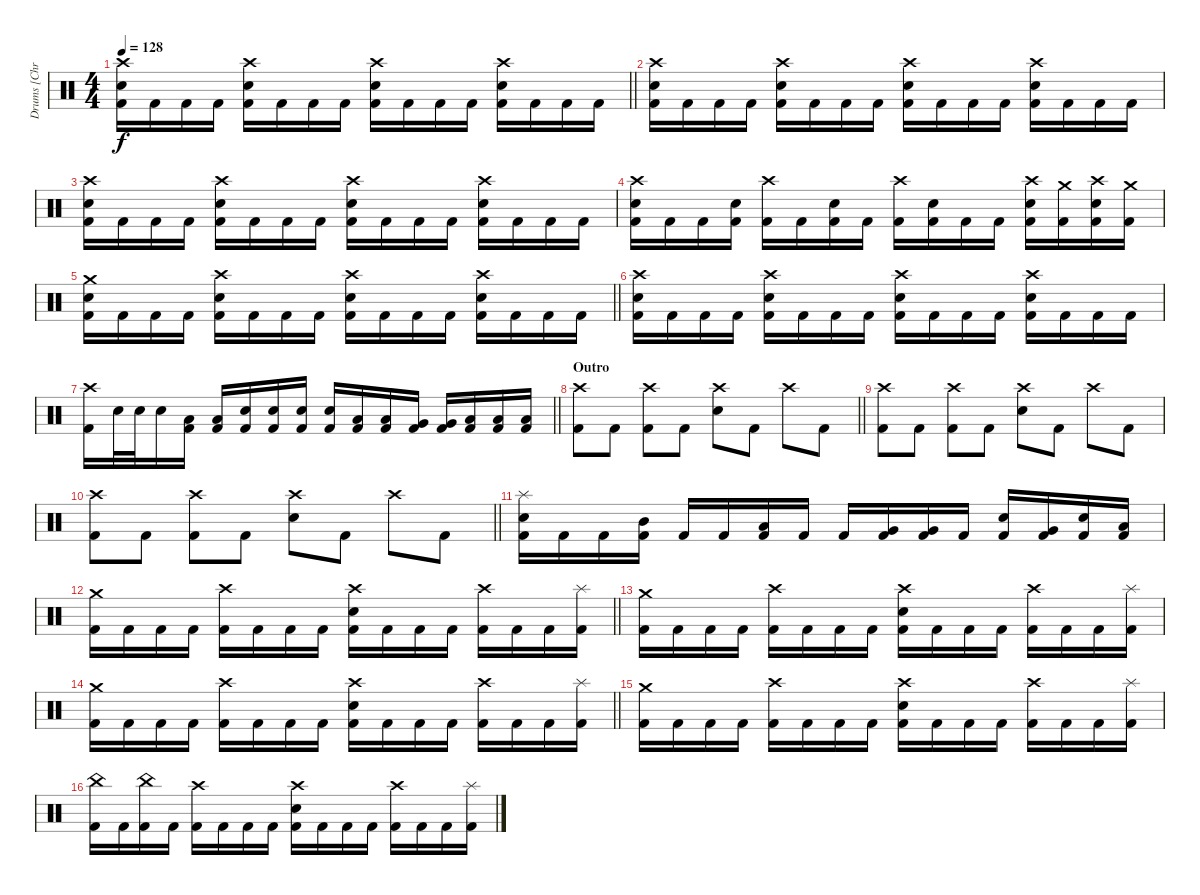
\track ("Drums [Chris Adler]" "Drums [Chr") {instrument percussion}
\staff {score}
\articulation defaults
\ts (4 4)
\tempo 128
\clef neutral
\barLineRight lightlight
\ks c
("Crash high (hit)" "Snare (hit) 2" "Kick (hit) 2").16{dy f} "Kick (hit) 2".16 "Kick (hit) 2".16 "Kick (hit) 2".16 ("Crash high (hit)" "Snare (hit) 2" "Kick (hit) 2").16 "Kick (hit) 2".16 "Kick (hit) 2".16 "Kick (hit) 2".16 ("Crash high (hit)" "Snare (hit) 2" "Kick (hit) 2").16 "Kick (hit) 2".16 "Kick (hit) 2".16 "Kick (hit) 2".16 ("Crash high (hit)" "Snare (hit) 2" "Kick (hit) 2").16 "Kick (hit) 2".16 "Kick (hit) 2".16 "Kick (hit) 2".16 |
("Crash high (hit)" "Snare (hit) 2" "Kick (hit) 2").16 "Kick (hit) 2".16 "Kick (hit) 2".16 "Kick (hit) 2".16 ("Crash high (hit)" "Snare (hit) 2" "Kick (hit) 2").16 "Kick (hit) 2".16 "Kick (hit) 2".16 "Kick (hit) 2".16 ("Crash high (hit)" "Snare (hit) 2" "Kick (hit) 2").16 "Kick (hit) 2".16 "Kick (hit) 2".16 "Kick (hit) 2".16 ("Crash high (hit)" "Snare (hit) 2" "Kick (hit) 2").16 "Kick (hit) 2".16 "Kick (hit) 2".16 "Kick (hit) 2".16 |
("Crash high (hit)" "Snare (hit) 2" "Kick (hit) 2").16 "Kick (hit) 2".16 "Kick (hit) 2".16 "Kick (hit) 2".16 ("Crash high (hit)" "Snare (hit) 2" "Kick (hit) 2").16 "Kick (hit) 2".16 "Kick (hit) 2".16 "Kick (hit) 2".16 ("Crash high (hit)" "Snare (hit) 2" "Kick (hit) 2").16 "Kick (hit) 2".16 "Kick (hit) 2".16 "Kick (hit) 2".16 ("Crash high (hit)" "Snare (hit) 2" "Kick (hit) 2").16 "Kick (hit) 2".16 "Kick (hit) 2".16 "Kick (hit) 2".16 |
("Crash high (hit)" "Snare (hit) 2" "Kick (hit) 2").16 "Kick (hit) 2".16 "Kick (hit) 2".16 ("Snare (hit) 2" "Kick (hit) 2").16 ("Crash high (hit)" "Kick (hit) 2").16 "Kick (hit) 2".16 ("Snare (hit) 2" "Kick (hit) 2").16 "Kick (hit) 2".16 ("Crash high (hit)" "Kick (hit) 2").16 ("Snare (hit) 2" "Kick (hit) 2").16 "Kick (hit) 2".16 "Kick (hit) 2".16 ("Crash high (hit)" "Snare (hit) 2" "Kick (hit) 2").16 ("Crash medium (hit)" "Kick (hit) 2").16 ("Crash high (hit)" "Snare (hit) 2" "Kick (hit) 2").16 ("Crash medium (hit)" "Kick (hit) 2").16 |
\barLineRight lightlight
("Crash medium (hit)" "Snare (hit) 2" "Kick (hit) 2").16 "Kick (hit) 2".16 "Kick (hit) 2".16 "Kick (hit) 2".16 ("Crash high (hit)" "Snare (hit) 2" "Kick (hit) 2").16 "Kick (hit) 2".16 "Kick (hit) 2".16 "Kick (hit) 2".16 ("Crash high (hit)" "Snare (hit) 2" "Kick (hit) 2").16 "Kick (hit) 2".16 "Kick (hit) 2".16 "Kick (hit) 2".16 ("Crash high (hit)" "Snare (hit) 2" "Kick (hit) 2").16 "Kick (hit) 2".16 "Kick (hit) 2".16 "Kick (hit) 2".16 |
("Crash high (hit)" "Snare (hit) 2" "Kick (hit) 2").16 "Kick (hit) 2".16 "Kick (hit) 2".16 "Kick (hit) 2".16 ("Crash high (hit)" "Snare (hit) 2" "Kick (hit) 2").16 "Kick (hit) 2".16 "Kick (hit) 2".16 "Kick (hit) 2".16 ("Crash high (hit)" "Snare (hit) 2" "Kick (hit) 2").16 "Kick (hit) 2".16 "Kick (hit) 2".16 "Kick (hit) 2".16 ("Crash high (hit)" "Snare (hit) 2" "Kick (hit) 2").16 "Kick (hit) 2".16 "Kick (hit) 2".16 "Kick (hit) 2".16 |
\barLineRight lightlight
("Crash high (hit)" "Kick (hit) 2").16 "Snare (hit) 2".32 "Snare (hit) 2".32 "Snare (hit) 2".16 ("Low Tom (hit)" "Kick (hit) 2").16 ("Low Tom (hit)" "Kick (hit) 2").16 ("Snare (hit) 2" "Kick (hit) 2").16 ("Snare (hit) 2" "Kick (hit) 2").16 ("Snare (hit) 2" "Kick (hit) 2").16 ("Snare (hit) 2" "Kick (hit) 2").16 ("Low Tom (hit)" "Kick (hit) 2").16 ("Low Tom (hit)" "Kick (hit) 2").16 ("Very Low Tom (hit)" "Kick (hit) 2").16 ("Very Low Tom (hit)" "Kick (hit) 2").16 ("Low Floor Tom (hit)" "Kick (hit) 2").16 ("Low Floor Tom (hit)" "Kick (hit) 2").16 ("Low Floor Tom (hit)" "Kick (hit) 2").16 |
\section ("" "Outro")
\barLineRight lightlight
("Crash high (hit)" "Kick (hit) 2").8 "Kick (hit) 2".8 ("Crash high (hit)" "Kick (hit) 2").8 "Kick (hit) 2".8 ("Crash high (hit)" "Snare (hit) 2").8 "Kick (hit) 2".8 "Crash high (hit)".8 "Kick (hit) 2".8 |
("Crash high (hit)" "Kick (hit) 2").8 "Kick (hit) 2".8 ("Crash high (hit)" "Kick (hit) 2").8 "Kick (hit) 2".8 ("Crash high (hit)" "Snare (hit) 2").8 "Kick (hit) 2".8 "Crash high (hit)".8 "Kick (hit) 2".8 |
\barLineRight lightlight
("Crash high (hit)" "Kick (hit) 2").8 "Kick (hit) 2".8 ("Crash high (hit)" "Kick (hit) 2").8 "Kick (hit) 2".8 ("Crash high (hit)" "Snare (hit) 2").8 "Kick (hit) 2".8 "Crash high (hit)".8 "Kick (hit) 2".8 |
("Splash (hit)" "Snare (hit) 2" "Kick (hit) 2").16 "Kick (hit) 2".16 "Kick (hit) 2".16 ("Mid Tom (hit)" "Kick (hit) 2").16 "Kick (hit) 2".16 "Kick (hit) 2".16 ("Low Tom (hit)" "Kick (hit) 2").16 "Kick (hit) 2".16 "Kick (hit) 2".16 ("Very Low Tom (hit)" "Kick (hit) 2").16 ("Very Low Tom (hit)" "Kick (hit) 2").16 "Kick (hit) 2".16 ("Snare (hit) 2" "Kick (hit) 2").16 ("Very Low Tom (hit)" "Kick (hit) 2").16 ("Snare (hit) 2" "Kick (hit) 2").16 ("Low Floor Tom (hit)" "Kick (hit) 2").16 |
\barLineRight lightlight
("Crash medium (hit)" "Kick (hit) 2").16 "Kick (hit) 2".16 "Kick (hit) 2".16 "Kick (hit) 2".16 ("Crash high (hit)" "Kick (hit) 2").16 "Kick (hit) 2".16 "Kick (hit) 2".16 "Kick (hit) 2".16 ("Crash high (hit)" "Snare (hit) 2" "Kick (hit) 2").16 "Kick (hit) 2".16 "Kick (hit) 2".16 "Kick (hit) 2".16 ("Crash high (hit)" "Kick (hit) 2").16 "Kick (hit) 2".16 "Kick (hit) 2".16 ("Splash (hit)" "Kick (hit) 2").16 |
("Crash medium (hit)" "Kick (hit) 2").16 "Kick (hit) 2".16 "Kick (hit) 2".16 "Kick (hit) 2".16 ("Crash high (hit)" "Kick (hit) 2").16 "Kick (hit) 2".16 "Kick (hit) 2".16 "Kick (hit) 2".16 ("Crash high (hit)" "Snare (hit) 2" "Kick (hit) 2").16 "Kick (hit) 2".16 "Kick (hit) 2".16 "Kick (hit) 2".16 ("Crash high (hit)" "Kick (hit) 2").16 "Kick (hit) 2".16 "Kick (hit) 2".16 ("Splash (hit)" "Kick (hit) 2").16 |
\barLineRight lightlight
("Crash medium (hit)" "Kick (hit) 2").16 "Kick (hit) 2".16 "Kick (hit) 2".16 "Kick (hit) 2".16 ("Crash high (hit)" "Kick (hit) 2").16 "Kick (hit) 2".16 "Kick (hit) 2".16 "Kick (hit) 2".16 ("Crash high (hit)" "Snare (hit) 2" "Kick (hit) 2").16 "Kick (hit) 2".16 "Kick (hit) 2".16 "Kick (hit) 2".16 ("Crash high (hit)" "Kick (hit) 2").16 "Kick (hit) 2".16 "Kick (hit) 2".16 ("Splash (hit)" "Kick (hit) 2").16 |
("Crash medium (hit)" "Kick (hit) 2").16 "Kick (hit) 2".16 "Kick (hit) 2".16 "Kick (hit) 2".16 ("Crash high (hit)" "Kick (hit) 2").16 "Kick (hit) 2".16 "Kick (hit) 2".16 "Kick (hit) 2".16 ("Crash high (hit)" "Snare (hit) 2" "Kick (hit) 2").16 "Kick (hit) 2".16 "Kick (hit) 2".16 "Kick (hit) 2".16 ("Crash high (hit)" "Kick (hit) 2").16 "Kick (hit) 2".16 "Kick (hit) 2".16 ("Splash (hit)" "Kick (hit) 2").16 |
("China (hit)" "Kick (hit) 2").16 "Kick (hit) 2".16 ("China (hit)" "Kick (hit) 2").16 "Kick (hit) 2".16 ("Crash high (hit)" "Kick (hit) 2").16 "Kick (hit) 2".16 "Kick (hit) 2".16 "Kick (hit) 2".16 ("Crash high (hit)" "Snare (hit) 2" "Kick (hit) 2").16 "Kick (hit) 2".16 "Kick (hit) 2".16 "Kick (hit) 2".16 ("Crash high (hit)" "Kick (hit) 2").16 "Kick (hit) 2".16 "Kick (hit) 2".16 ("Splash (hit)" "Kick (hit) 2").16
